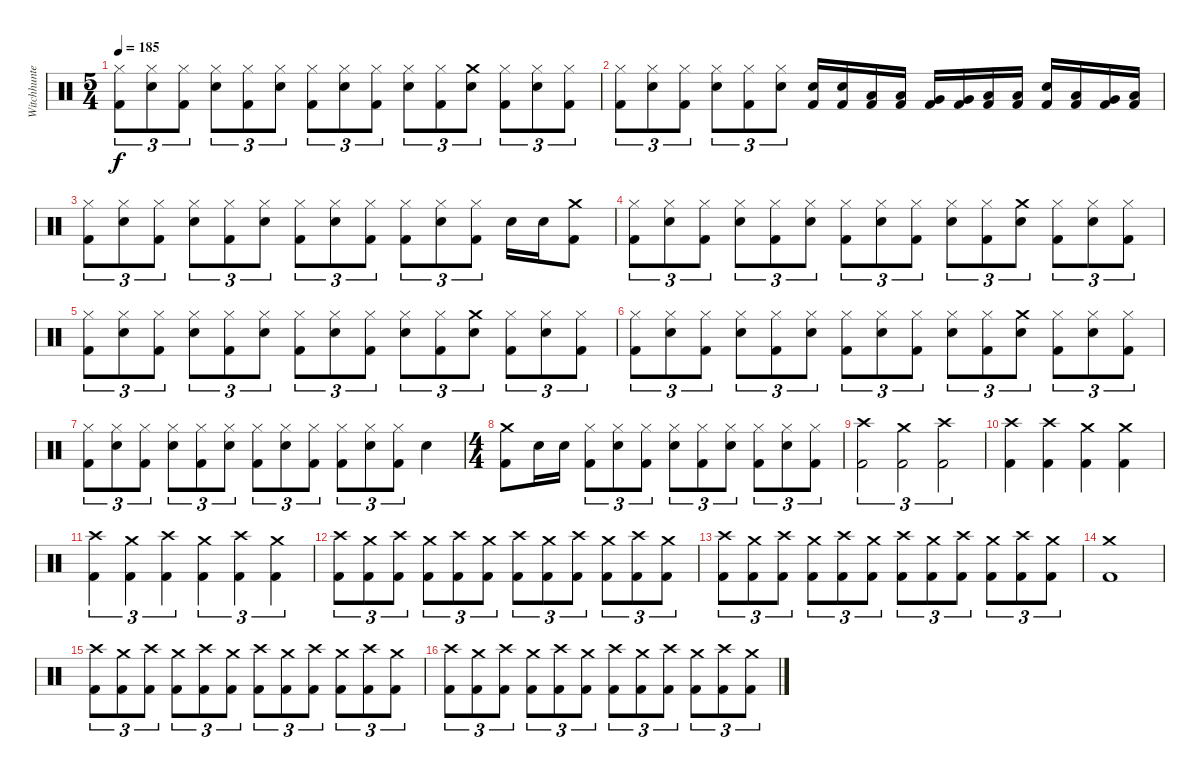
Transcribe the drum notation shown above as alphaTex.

\track ("Witchhunter" "Witchhunte") {instrument percussion}
\staff {score}
\articulation defaults
\ts (5 4)
\tempo 185
\clef neutral
\ks c
("Hi-Hat (closed)" "Kick (hit) 2").8{tu (3 2) dy f} ("Hi-Hat (closed)" "Snare (hit) 2").8{tu (3 2)} ("Hi-Hat (closed)" "Kick (hit) 2").8{tu (3 2)} ("Hi-Hat (closed)" "Snare (hit) 2").8{tu (3 2)} ("Hi-Hat (closed)" "Kick (hit) 2").8{tu (3 2)} ("Hi-Hat (closed)" "Snare (hit) 2").8{tu (3 2)} ("Hi-Hat (closed)" "Kick (hit) 2").8{tu (3 2)} ("Hi-Hat (closed)" "Snare (hit) 2").8{tu (3 2)} ("Hi-Hat (closed)" "Kick (hit) 2").8{tu (3 2)} ("Hi-Hat (closed)" "Snare (hit) 2").8{tu (3 2)} ("Hi-Hat (closed)" "Kick (hit) 2").8{tu (3 2)} ("Crash medium (hit)" "Snare (hit) 2").8{tu (3 2)} ("Hi-Hat (closed)" "Kick (hit) 2").8{tu (3 2)} ("Hi-Hat (closed)" "Snare (hit) 2").8{tu (3 2)} ("Hi-Hat (closed)" "Kick (hit) 2").8{tu (3 2)} |
("Hi-Hat (closed)" "Kick (hit) 2").8{tu (3 2)} ("Hi-Hat (closed)" "Snare (hit) 2").8{tu (3 2)} ("Hi-Hat (closed)" "Kick (hit) 2").8{tu (3 2)} ("Hi-Hat (closed)" "Snare (hit) 2").8{tu (3 2)} ("Hi-Hat (closed)" "Kick (hit) 2").8{tu (3 2)} ("Hi-Hat (closed)" "Snare (hit) 2").8{tu (3 2)} ("Snare (hit) 2" "Kick (hit) 2").16 ("Snare (hit) 2" "Kick (hit) 2").16 ("Low Tom (hit)" "Kick (hit) 2").16 ("Low Tom (hit)" "Kick (hit) 2").16 ("Very Low Tom (hit)" "Kick (hit) 2").16 ("Very Low Tom (hit)" "Kick (hit) 2").16 ("Low Floor Tom (hit)" "Kick (hit) 2").16 ("Low Floor Tom (hit)" "Kick (hit) 2").16 ("Snare (hit) 2" "Kick (hit) 2").16 ("Low Tom (hit)" "Kick (hit) 2").16 ("Very Low Tom (hit)" "Kick (hit) 2").16 ("Low Floor Tom (hit)" "Kick (hit) 2").16 |
("Hi-Hat (closed)" "Kick (hit) 2").8{tu (3 2)} ("Hi-Hat (closed)" "Snare (hit) 2").8{tu (3 2)} ("Hi-Hat (closed)" "Kick (hit) 2").8{tu (3 2)} ("Hi-Hat (closed)" "Snare (hit) 2").8{tu (3 2)} ("Hi-Hat (closed)" "Kick (hit) 2").8{tu (3 2)} ("Hi-Hat (closed)" "Snare (hit) 2").8{tu (3 2)} ("Hi-Hat (closed)" "Kick (hit) 2").8{tu (3 2)} ("Hi-Hat (closed)" "Snare (hit) 2").8{tu (3 2)} ("Hi-Hat (closed)" "Kick (hit) 2").8{tu (3 2)} ("Hi-Hat (closed)" "Kick (hit) 2").8{tu (3 2)} ("Hi-Hat (closed)" "Snare (hit) 2").8{tu (3 2)} ("Hi-Hat (closed)" "Kick (hit) 2").8{tu (3 2)} "Snare (hit) 2".16 "Snare (hit) 2".16 ("Crash medium (hit)" "Kick (hit) 2").8 |
("Hi-Hat (closed)" "Kick (hit) 2").8{tu (3 2)} ("Hi-Hat (closed)" "Snare (hit) 2").8{tu (3 2)} ("Hi-Hat (closed)" "Kick (hit) 2").8{tu (3 2)} ("Hi-Hat (closed)" "Snare (hit) 2").8{tu (3 2)} ("Hi-Hat (closed)" "Kick (hit) 2").8{tu (3 2)} ("Hi-Hat (closed)" "Snare (hit) 2").8{tu (3 2)} ("Hi-Hat (closed)" "Kick (hit) 2").8{tu (3 2)} ("Hi-Hat (closed)" "Snare (hit) 2").8{tu (3 2)} ("Hi-Hat (closed)" "Kick (hit) 2").8{tu (3 2)} ("Hi-Hat (closed)" "Snare (hit) 2").8{tu (3 2)} ("Hi-Hat (closed)" "Kick (hit) 2").8{tu (3 2)} ("Crash medium (hit)" "Snare (hit) 2").8{tu (3 2)} ("Hi-Hat (closed)" "Kick (hit) 2").8{tu (3 2)} ("Hi-Hat (closed)" "Snare (hit) 2").8{tu (3 2)} ("Hi-Hat (closed)" "Kick (hit) 2").8{tu (3 2)} |
("Hi-Hat (closed)" "Kick (hit) 2").8{tu (3 2)} ("Hi-Hat (closed)" "Snare (hit) 2").8{tu (3 2)} ("Hi-Hat (closed)" "Kick (hit) 2").8{tu (3 2)} ("Hi-Hat (closed)" "Snare (hit) 2").8{tu (3 2)} ("Hi-Hat (closed)" "Kick (hit) 2").8{tu (3 2)} ("Hi-Hat (closed)" "Snare (hit) 2").8{tu (3 2)} ("Hi-Hat (closed)" "Kick (hit) 2").8{tu (3 2)} ("Hi-Hat (closed)" "Snare (hit) 2").8{tu (3 2)} ("Hi-Hat (closed)" "Kick (hit) 2").8{tu (3 2)} ("Hi-Hat (closed)" "Snare (hit) 2").8{tu (3 2)} ("Hi-Hat (closed)" "Kick (hit) 2").8{tu (3 2)} ("Crash medium (hit)" "Snare (hit) 2").8{tu (3 2)} ("Hi-Hat (closed)" "Kick (hit) 2").8{tu (3 2)} ("Hi-Hat (closed)" "Snare (hit) 2").8{tu (3 2)} ("Hi-Hat (closed)" "Kick (hit) 2").8{tu (3 2)} |
("Hi-Hat (closed)" "Kick (hit) 2").8{tu (3 2)} ("Hi-Hat (closed)" "Snare (hit) 2").8{tu (3 2)} ("Hi-Hat (closed)" "Kick (hit) 2").8{tu (3 2)} ("Hi-Hat (closed)" "Snare (hit) 2").8{tu (3 2)} ("Hi-Hat (closed)" "Kick (hit) 2").8{tu (3 2)} ("Hi-Hat (closed)" "Snare (hit) 2").8{tu (3 2)} ("Hi-Hat (closed)" "Kick (hit) 2").8{tu (3 2)} ("Hi-Hat (closed)" "Snare (hit) 2").8{tu (3 2)} ("Hi-Hat (closed)" "Kick (hit) 2").8{tu (3 2)} ("Hi-Hat (closed)" "Snare (hit) 2").8{tu (3 2)} ("Hi-Hat (closed)" "Kick (hit) 2").8{tu (3 2)} ("Crash medium (hit)" "Snare (hit) 2").8{tu (3 2)} ("Hi-Hat (closed)" "Kick (hit) 2").8{tu (3 2)} ("Hi-Hat (closed)" "Snare (hit) 2").8{tu (3 2)} ("Hi-Hat (closed)" "Kick (hit) 2").8{tu (3 2)} |
("Hi-Hat (closed)" "Kick (hit) 2").8{tu (3 2)} ("Hi-Hat (closed)" "Snare (hit) 2").8{tu (3 2)} ("Hi-Hat (closed)" "Kick (hit) 2").8{tu (3 2)} ("Hi-Hat (closed)" "Snare (hit) 2").8{tu (3 2)} ("Hi-Hat (closed)" "Kick (hit) 2").8{tu (3 2)} ("Hi-Hat (closed)" "Snare (hit) 2").8{tu (3 2)} ("Hi-Hat (closed)" "Kick (hit) 2").8{tu (3 2)} ("Hi-Hat (closed)" "Snare (hit) 2").8{tu (3 2)} ("Hi-Hat (closed)" "Kick (hit) 2").8{tu (3 2)} ("Hi-Hat (closed)" "Kick (hit) 2").8{tu (3 2)} ("Hi-Hat (closed)" "Snare (hit) 2").8{tu (3 2)} ("Hi-Hat (closed)" "Kick (hit) 2").8{tu (3 2)} "Snare (hit) 2".4 |
\ts (4 4)
("Crash medium (hit)" "Kick (hit) 2").8 "Snare (hit) 2".16 "Snare (hit) 2".16 ("Hi-Hat (closed)" "Kick (hit) 2").8{tu (3 2)} ("Hi-Hat (closed)" "Snare (hit) 2").8{tu (3 2)} ("Hi-Hat (closed)" "Kick (hit) 2").8{tu (3 2)} ("Hi-Hat (closed)" "Snare (hit) 2").8{tu (3 2)} ("Hi-Hat (closed)" "Kick (hit) 2").8{tu (3 2)} ("Hi-Hat (closed)" "Snare (hit) 2").8{tu (3 2)} ("Hi-Hat (closed)" "Kick (hit) 2").8{tu (3 2)} ("Hi-Hat (closed)" "Snare (hit) 2").8{tu (3 2)} ("Hi-Hat (closed)" "Kick (hit) 2").8{tu (3 2)} |
("Crash high (hit)" "Kick (hit) 2").2{tu (3 2)} ("Crash medium (hit)" "Kick (hit) 2").2{tu (3 2)} ("Crash high (hit)" "Kick (hit) 2").2{tu (3 2)} |
("Crash high (hit)" "Kick (hit) 2").4 ("Crash high (hit)" "Kick (hit) 2").4 ("Crash medium (hit)" "Kick (hit) 2").4 ("Crash medium (hit)" "Kick (hit) 2").4 |
("Crash high (hit)" "Kick (hit) 2").4{tu (3 2)} ("Crash medium (hit)" "Kick (hit) 2").4{tu (3 2)} ("Crash high (hit)" "Kick (hit) 2").4{tu (3 2)} ("Crash medium (hit)" "Kick (hit) 2").4{tu (3 2)} ("Crash high (hit)" "Kick (hit) 2").4{tu (3 2)} ("Crash medium (hit)" "Kick (hit) 2").4{tu (3 2)} |
("Crash high (hit)" "Kick (hit) 2").8{tu (3 2)} ("Crash medium (hit)" "Kick (hit) 2").8{tu (3 2)} ("Crash high (hit)" "Kick (hit) 2").8{tu (3 2)} ("Crash medium (hit)" "Kick (hit) 2").8{tu (3 2)} ("Crash high (hit)" "Kick (hit) 2").8{tu (3 2)} ("Crash medium (hit)" "Kick (hit) 2").8{tu (3 2)} ("Crash high (hit)" "Kick (hit) 2").8{tu (3 2)} ("Crash medium (hit)" "Kick (hit) 2").8{tu (3 2)} ("Crash high (hit)" "Kick (hit) 2").8{tu (3 2)} ("Crash medium (hit)" "Kick (hit) 2").8{tu (3 2)} ("Crash high (hit)" "Kick (hit) 2").8{tu (3 2)} ("Crash medium (hit)" "Kick (hit) 2").8{tu (3 2)} |
("Crash high (hit)" "Kick (hit) 2").8{tu (3 2)} ("Crash medium (hit)" "Kick (hit) 2").8{tu (3 2)} ("Crash high (hit)" "Kick (hit) 2").8{tu (3 2)} ("Crash medium (hit)" "Kick (hit) 2").8{tu (3 2)} ("Crash high (hit)" "Kick (hit) 2").8{tu (3 2)} ("Crash medium (hit)" "Kick (hit) 2").8{tu (3 2)} ("Crash high (hit)" "Kick (hit) 2").8{tu (3 2)} ("Crash medium (hit)" "Kick (hit) 2").8{tu (3 2)} ("Crash high (hit)" "Kick (hit) 2").8{tu (3 2)} ("Crash medium (hit)" "Kick (hit) 2").8{tu (3 2)} ("Crash high (hit)" "Kick (hit) 2").8{tu (3 2)} ("Crash medium (hit)" "Kick (hit) 2").8{tu (3 2)} |
("Crash medium (hit)" "Kick (hit) 2").1 |
("Crash high (hit)" "Kick (hit) 2").8{tu (3 2)} ("Crash medium (hit)" "Kick (hit) 2").8{tu (3 2)} ("Crash high (hit)" "Kick (hit) 2").8{tu (3 2)} ("Crash medium (hit)" "Kick (hit) 2").8{tu (3 2)} ("Crash high (hit)" "Kick (hit) 2").8{tu (3 2)} ("Crash medium (hit)" "Kick (hit) 2").8{tu (3 2)} ("Crash high (hit)" "Kick (hit) 2").8{tu (3 2)} ("Crash medium (hit)" "Kick (hit) 2").8{tu (3 2)} ("Crash high (hit)" "Kick (hit) 2").8{tu (3 2)} ("Crash medium (hit)" "Kick (hit) 2").8{tu (3 2)} ("Crash high (hit)" "Kick (hit) 2").8{tu (3 2)} ("Crash medium (hit)" "Kick (hit) 2").8{tu (3 2)} |
("Crash high (hit)" "Kick (hit) 2").8{tu (3 2)} ("Crash medium (hit)" "Kick (hit) 2").8{tu (3 2)} ("Crash high (hit)" "Kick (hit) 2").8{tu (3 2)} ("Crash medium (hit)" "Kick (hit) 2").8{tu (3 2)} ("Crash high (hit)" "Kick (hit) 2").8{tu (3 2)} ("Crash medium (hit)" "Kick (hit) 2").8{tu (3 2)} ("Crash high (hit)" "Kick (hit) 2").8{tu (3 2)} ("Crash medium (hit)" "Kick (hit) 2").8{tu (3 2)} ("Crash high (hit)" "Kick (hit) 2").8{tu (3 2)} ("Crash medium (hit)" "Kick (hit) 2").8{tu (3 2)} ("Crash high (hit)" "Kick (hit) 2").8{tu (3 2)} ("Crash medium (hit)" "Kick (hit) 2").8{tu (3 2)}
